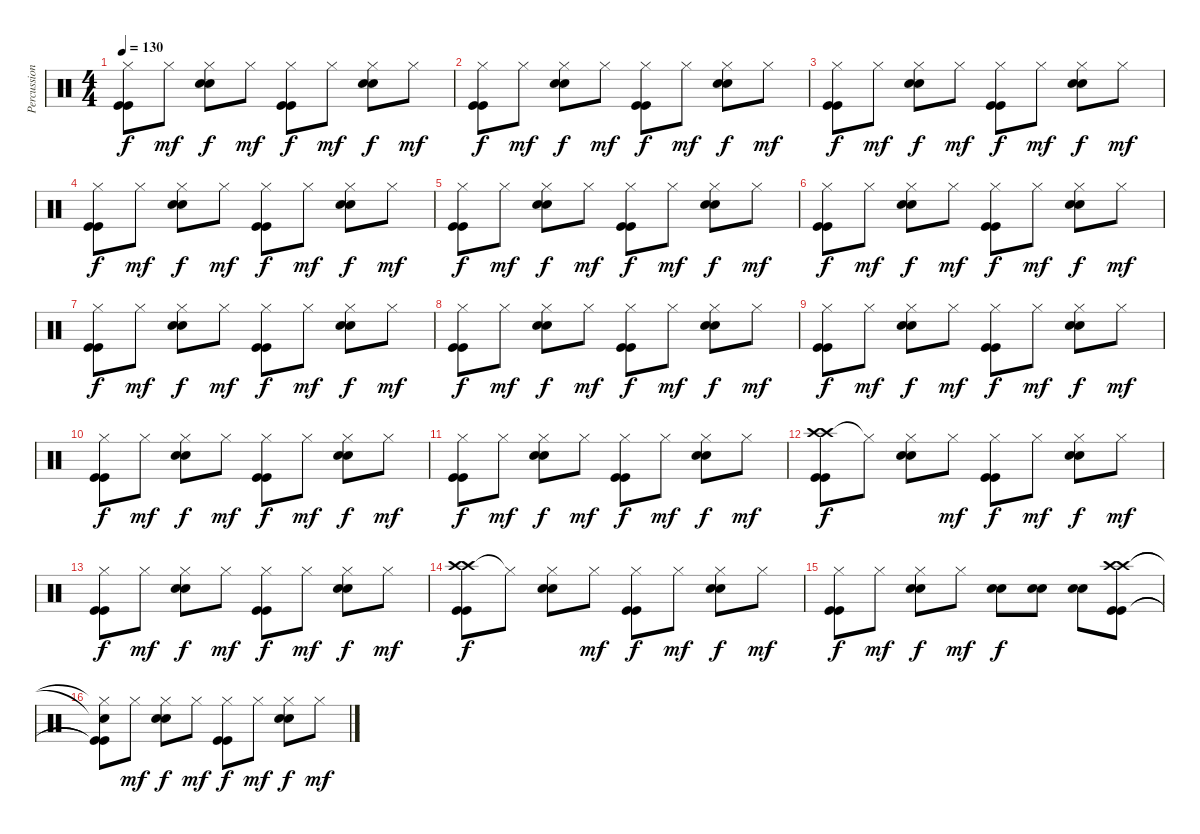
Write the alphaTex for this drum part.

\track ("Percussions" "Percussion") {instrument percussion}
\staff {score}
\articulation defaults
\ts (4 4)
\tempo 130
\clef neutral
\ks c
("Hi-Hat (closed)" "Kick (hit)" "Kick (hit)").8{dy f} "Hi-Hat (closed)".8{dy mf} ("Hi-Hat (closed)" "Snare (hit) 2" "Snare (hit) 2").8{dy f} "Hi-Hat (closed)".8{dy mf} ("Hi-Hat (closed)" "Kick (hit)" "Kick (hit)").8{dy f} "Hi-Hat (closed)".8{dy mf} ("Hi-Hat (closed)" "Snare (hit) 2" "Snare (hit) 2").8{dy f} "Hi-Hat (closed)".8{dy mf} |
("Hi-Hat (closed)" "Kick (hit)" "Kick (hit)").8{dy f} "Hi-Hat (closed)".8{dy mf} ("Hi-Hat (closed)" "Snare (hit) 2" "Snare (hit) 2").8{dy f} "Hi-Hat (closed)".8{dy mf} ("Hi-Hat (closed)" "Kick (hit)" "Kick (hit)").8{dy f} "Hi-Hat (closed)".8{dy mf} ("Hi-Hat (closed)" "Snare (hit) 2" "Snare (hit) 2").8{dy f} "Hi-Hat (closed)".8{dy mf} |
("Hi-Hat (closed)" "Kick (hit)" "Kick (hit)").8{dy f} "Hi-Hat (closed)".8{dy mf} ("Hi-Hat (closed)" "Snare (hit) 2" "Snare (hit) 2").8{dy f} "Hi-Hat (closed)".8{dy mf} ("Hi-Hat (closed)" "Kick (hit)" "Kick (hit)").8{dy f} "Hi-Hat (closed)".8{dy mf} ("Hi-Hat (closed)" "Snare (hit) 2" "Snare (hit) 2").8{dy f} "Hi-Hat (closed)".8{dy mf} |
("Hi-Hat (closed)" "Kick (hit)" "Kick (hit)").8{dy f} "Hi-Hat (closed)".8{dy mf} ("Hi-Hat (closed)" "Snare (hit) 2" "Snare (hit) 2").8{dy f} "Hi-Hat (closed)".8{dy mf} ("Hi-Hat (closed)" "Kick (hit)" "Kick (hit)").8{dy f} "Hi-Hat (closed)".8{dy mf} ("Hi-Hat (closed)" "Snare (hit) 2" "Snare (hit) 2").8{dy f} "Hi-Hat (closed)".8{dy mf} |
("Hi-Hat (closed)" "Kick (hit)" "Kick (hit)").8{dy f} "Hi-Hat (closed)".8{dy mf} ("Hi-Hat (closed)" "Snare (hit) 2" "Snare (hit) 2").8{dy f} "Hi-Hat (closed)".8{dy mf} ("Hi-Hat (closed)" "Kick (hit)" "Kick (hit)").8{dy f} "Hi-Hat (closed)".8{dy mf} ("Hi-Hat (closed)" "Snare (hit) 2" "Snare (hit) 2").8{dy f} "Hi-Hat (closed)".8{dy mf} |
("Hi-Hat (closed)" "Kick (hit)" "Kick (hit)").8{dy f} "Hi-Hat (closed)".8{dy mf} ("Hi-Hat (closed)" "Snare (hit) 2" "Snare (hit) 2").8{dy f} "Hi-Hat (closed)".8{dy mf} ("Hi-Hat (closed)" "Kick (hit)" "Kick (hit)").8{dy f} "Hi-Hat (closed)".8{dy mf} ("Hi-Hat (closed)" "Snare (hit) 2" "Snare (hit) 2").8{dy f} "Hi-Hat (closed)".8{dy mf} |
("Hi-Hat (closed)" "Kick (hit)" "Kick (hit)").8{dy f} "Hi-Hat (closed)".8{dy mf} ("Hi-Hat (closed)" "Snare (hit) 2" "Snare (hit) 2").8{dy f} "Hi-Hat (closed)".8{dy mf} ("Hi-Hat (closed)" "Kick (hit)" "Kick (hit)").8{dy f} "Hi-Hat (closed)".8{dy mf} ("Hi-Hat (closed)" "Snare (hit) 2" "Snare (hit) 2").8{dy f} "Hi-Hat (closed)".8{dy mf} |
("Hi-Hat (closed)" "Kick (hit)" "Kick (hit)").8{dy f} "Hi-Hat (closed)".8{dy mf} ("Hi-Hat (closed)" "Snare (hit) 2" "Snare (hit) 2").8{dy f} "Hi-Hat (closed)".8{dy mf} ("Hi-Hat (closed)" "Kick (hit)" "Kick (hit)").8{dy f} "Hi-Hat (closed)".8{dy mf} ("Hi-Hat (closed)" "Snare (hit) 2" "Snare (hit) 2").8{dy f} "Hi-Hat (closed)".8{dy mf} |
("Hi-Hat (closed)" "Kick (hit)" "Kick (hit)").8{dy f} "Hi-Hat (closed)".8{dy mf} ("Hi-Hat (closed)" "Snare (hit) 2" "Snare (hit) 2").8{dy f} "Hi-Hat (closed)".8{dy mf} ("Hi-Hat (closed)" "Kick (hit)" "Kick (hit)").8{dy f} "Hi-Hat (closed)".8{dy mf} ("Hi-Hat (closed)" "Snare (hit) 2" "Snare (hit) 2").8{dy f} "Hi-Hat (closed)".8{dy mf} |
("Hi-Hat (closed)" "Kick (hit)" "Kick (hit)").8{dy f} "Hi-Hat (closed)".8{dy mf} ("Hi-Hat (closed)" "Snare (hit) 2" "Snare (hit) 2").8{dy f} "Hi-Hat (closed)".8{dy mf} ("Hi-Hat (closed)" "Kick (hit)" "Kick (hit)").8{dy f} "Hi-Hat (closed)".8{dy mf} ("Hi-Hat (closed)" "Snare (hit) 2" "Snare (hit) 2").8{dy f} "Hi-Hat (closed)".8{dy mf} |
("Hi-Hat (closed)" "Kick (hit)" "Kick (hit)").8{dy f} "Hi-Hat (closed)".8{dy mf} ("Hi-Hat (closed)" "Snare (hit) 2" "Snare (hit) 2").8{dy f} "Hi-Hat (closed)".8{dy mf} ("Hi-Hat (closed)" "Kick (hit)" "Kick (hit)").8{dy f} "Hi-Hat (closed)".8{dy mf} ("Hi-Hat (closed)" "Snare (hit) 2" "Snare (hit) 2").8{dy f} "Hi-Hat (closed)".8{dy mf} |
("Crash high (hit)" "Crash high (hit)" "Kick (hit)" "Kick (hit)").8{dy f} "Hi-Hat (closed)"{t}.8 ("Hi-Hat (closed)" "Snare (hit) 2" "Snare (hit) 2").8 "Hi-Hat (closed)".8{dy mf} ("Hi-Hat (closed)" "Kick (hit)" "Kick (hit)").8{dy f} "Hi-Hat (closed)".8{dy mf} ("Hi-Hat (closed)" "Snare (hit) 2" "Snare (hit) 2").8{dy f} "Hi-Hat (closed)".8{dy mf} |
("Hi-Hat (closed)" "Kick (hit)" "Kick (hit)").8{dy f} "Hi-Hat (closed)".8{dy mf} ("Hi-Hat (closed)" "Snare (hit) 2" "Snare (hit) 2").8{dy f} "Hi-Hat (closed)".8{dy mf} ("Hi-Hat (closed)" "Kick (hit)" "Kick (hit)").8{dy f} "Hi-Hat (closed)".8{dy mf} ("Hi-Hat (closed)" "Snare (hit) 2" "Snare (hit) 2").8{dy f} "Hi-Hat (closed)".8{dy mf} |
("Crash high (hit)" "Crash high (hit)" "Kick (hit)" "Kick (hit)").8{dy f} "Hi-Hat (closed)"{t}.8 ("Hi-Hat (closed)" "Snare (hit) 2" "Snare (hit) 2").8 "Hi-Hat (closed)".8{dy mf} ("Hi-Hat (closed)" "Kick (hit)" "Kick (hit)").8{dy f} "Hi-Hat (closed)".8{dy mf} ("Hi-Hat (closed)" "Snare (hit) 2" "Snare (hit) 2").8{dy f} "Hi-Hat (closed)".8{dy mf} |
("Hi-Hat (closed)" "Kick (hit)" "Kick (hit)").8{dy f} "Hi-Hat (closed)".8{dy mf} ("Hi-Hat (closed)" "Snare (hit) 2" "Snare (hit) 2").8{dy f} "Hi-Hat (closed)".8{dy mf} ("Snare (hit) 2" "Snare (hit) 2").8{dy f} ("Snare (hit) 2" "Snare (hit) 2").8 ("Snare (hit) 2" "Snare (hit) 2").8 ("Crash high (hit)" "Crash high (hit)" "Kick (hit)" "Kick (hit)").8 |
("Hi-Hat (closed)"{t} "Snare (hit)"{t} "Kick (hit)"{t} "Kick (hit)"{t}).8 "Hi-Hat (closed)".8{dy mf} ("Hi-Hat (closed)" "Snare (hit) 2" "Snare (hit) 2").8{dy f} "Hi-Hat (closed)".8{dy mf} ("Hi-Hat (closed)" "Kick (hit)" "Kick (hit)").8{dy f} "Hi-Hat (closed)".8{dy mf} ("Hi-Hat (closed)" "Snare (hit) 2" "Snare (hit) 2").8{dy f} "Hi-Hat (closed)".8{dy mf}
